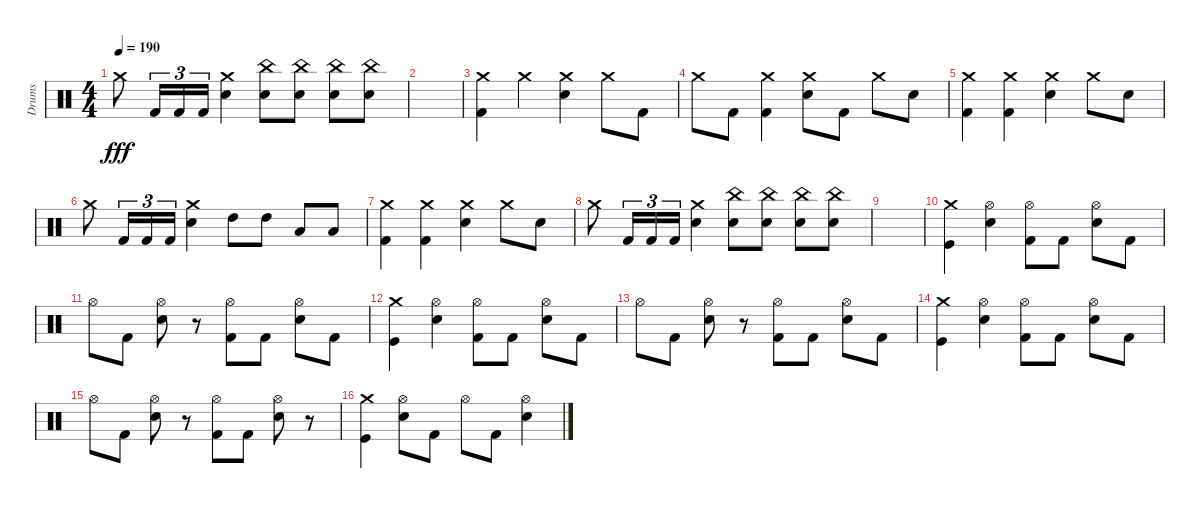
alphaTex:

\track ("Drums" "Drums") {instrument percussion}
\staff {score}
\articulation defaults
\ts (4 4)
\tempo 190
\clef neutral
\ks c "Crash medium (hit)".8{dy fff} "Kick (hit) 2".16{tu (3 2)} "Kick (hit) 2".16{tu (3 2)} "Kick (hit) 2".16{tu (3 2)}
("Electric Snare (hit)" "Crash medium (hit)").4 ("Electric Snare (hit)" "China (hit)").8 ("Electric Snare (hit)" "China (hit)").8 ("Electric Snare (hit)" "China (hit)").8 ("Electric Snare (hit)" "China (hit)").8 |
|
("Kick (hit) 2" "Crash medium (hit)").4 "Crash medium (hit)".4 ("Crash medium (hit)" "Electric Snare (hit)").4 "Crash medium (hit)".8 "Kick (hit) 2".8 |
"Crash medium (hit)".8 "Kick (hit) 2".8 ("Crash medium (hit)" "Kick (hit) 2").4 ("Electric Snare (hit)" "Crash medium (hit)").8 "Kick (hit) 2".8 "Crash medium (hit)".8 "Electric Snare (hit)".8 |
("Kick (hit) 2" "Crash medium (hit)").4 ("Kick (hit) 2" "Crash medium (hit)").4 ("Electric Snare (hit)" "Crash medium (hit)").4 "Crash medium (hit)".8 "Electric Snare (hit)".8 |
"Crash medium (hit)".8 "Kick (hit) 2".16{tu (3 2)} "Kick (hit) 2".16{tu (3 2)} "Kick (hit) 2".16{tu (3 2)} ("Electric Snare (hit)" "Crash medium (hit)").4 "High Tom (hit)".8 "High Tom (hit)".8 "Low Tom (hit)".8 "Low Tom (hit)".8 |
("Kick (hit) 2" "Crash medium (hit)").4 ("Kick (hit) 2" "Crash medium (hit)").4 ("Electric Snare (hit)" "Crash medium (hit)").4 "Crash medium (hit)".8 "Electric Snare (hit)".8 |
"Crash medium (hit)".8 "Kick (hit) 2".16{tu (3 2)} "Kick (hit) 2".16{tu (3 2)} "Kick (hit) 2".16{tu (3 2)} ("Electric Snare (hit)" "Crash medium (hit)").4 ("Electric Snare (hit)" "China (hit)").8 ("Electric Snare (hit)" "China (hit)").8 ("Electric Snare (hit)" "China (hit)").8 ("Electric Snare (hit)" "China (hit)").8 |
|
("Crash medium (hit)" "Kick (hit)").4 ("Electric Snare (hit)" "Hi-Hat (open)").4 ("Kick (hit) 2" "Hi-Hat (open)").8 "Kick (hit) 2".8 ("Electric Snare (hit)" "Hi-Hat (open)").8 "Kick (hit) 2".8 |
"Hi-Hat (open)".8 "Kick (hit) 2".8 ("Electric Snare (hit)" "Hi-Hat (open)").8 r.8 ("Kick (hit) 2" "Hi-Hat (open)").8 "Kick (hit) 2".8 ("Hi-Hat (open)" "Electric Snare (hit)").8 "Kick (hit) 2".8 |
("Crash medium (hit)" "Kick (hit)").4 ("Electric Snare (hit)" "Hi-Hat (open)").4 ("Kick (hit) 2" "Hi-Hat (open)").8 "Kick (hit) 2".8 ("Electric Snare (hit)" "Hi-Hat (open)").8 "Kick (hit) 2".8 |
"Hi-Hat (open)".8 "Kick (hit) 2".8 ("Electric Snare (hit)" "Hi-Hat (open)").8 r.8 ("Kick (hit) 2" "Hi-Hat (open)").8 "Kick (hit) 2".8 ("Hi-Hat (open)" "Electric Snare (hit)").8 "Kick (hit) 2".8 |
("Crash medium (hit)" "Kick (hit)").4 ("Electric Snare (hit)" "Hi-Hat (open)").4 ("Kick (hit) 2" "Hi-Hat (open)").8 "Kick (hit) 2".8 ("Electric Snare (hit)" "Hi-Hat (open)").8 "Kick (hit) 2".8 |
"Hi-Hat (open)".8 "Kick (hit) 2".8 ("Electric Snare (hit)" "Hi-Hat (open)").8 r.8 ("Kick (hit) 2" "Hi-Hat (open)").8 "Kick (hit) 2".8 ("Hi-Hat (open)" "Electric Snare (hit)").8 r.8 |
("Crash medium (hit)" "Kick (hit)").4 ("Electric Snare (hit)" "Hi-Hat (open)").8 "Kick (hit) 2".8 "Hi-Hat (open)".8 "Kick (hit) 2".8 ("Hi-Hat (open)" "Electric Snare (hit)").4
